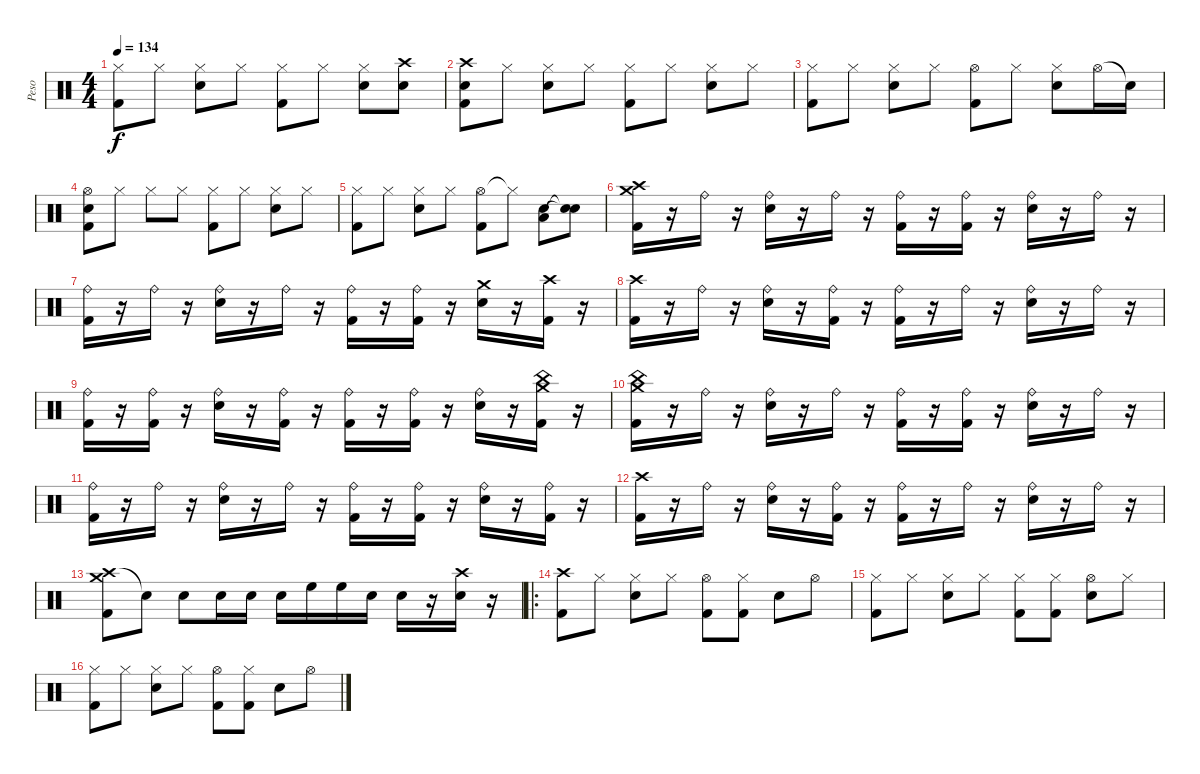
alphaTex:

\track ("Peso" "Peso") {instrument percussion}
\staff {score}
\articulation defaults
\ts (4 4)
\tempo 134
\clef neutral
\ks c
("Hi-Hat (closed)" "Kick (hit) 2").8{dy f} "Hi-Hat (closed)".8 ("Hi-Hat (closed)" "Snare (hit) 2").8 "Hi-Hat (closed)".8 ("Hi-Hat (closed)" "Kick (hit) 2").8 "Hi-Hat (closed)".8 ("Hi-Hat (closed)" "Snare (hit) 2").8 ("Crash high (hit)" "Snare (hit) 2").8 |
("Crash high (hit)" "Snare (hit) 2" "Kick (hit) 2").8 "Hi-Hat (closed)".8 ("Hi-Hat (closed)" "Snare (hit) 2").8 "Hi-Hat (closed)".8 ("Hi-Hat (closed)" "Kick (hit) 2").8 "Hi-Hat (closed)".8 ("Hi-Hat (closed)" "Snare (hit) 2").8 "Hi-Hat (closed)".8 |
("Hi-Hat (closed)" "Kick (hit) 2").8 "Hi-Hat (closed)".8 ("Hi-Hat (closed)" "Snare (hit) 2").8 "Hi-Hat (closed)".8 ("Hi-Hat (open)" "Kick (hit) 2").8 "Hi-Hat (closed)".8 ("Hi-Hat (closed)" "Snare (hit) 2").8 "Hi-Hat (open)".16 "Snare (hit)"{t}.16 |
("Hi-Hat (open)" "Snare (hit) 2" "Kick (hit) 2").8 "Hi-Hat (closed)".8 "Hi-Hat (closed)".8 "Hi-Hat (closed)".8 ("Hi-Hat (closed)" "Kick (hit) 2").8 "Hi-Hat (closed)".8 ("Hi-Hat (closed)" "Snare (hit) 2").8 "Hi-Hat (closed)".8 |
("Hi-Hat (closed)" "Kick (hit) 2").8 "Hi-Hat (closed)".8 ("Hi-Hat (closed)" "Snare (hit) 2").8 "Hi-Hat (closed)".8 ("Hi-Hat (open)" "Kick (hit) 2").8 "Hi-Hat (closed)"{t}.8 ("Low Floor Tom (hit)" "Snare (hit) 2").8 ("Snare (hit)"{t} "Snare (hit)"{t}).8 |
("Crash high (hit)" "Crash medium (hit)" "Kick (hit) 2").16 r.16 "Ride (bell)".16 r.16 ("Ride (bell)" "Snare (hit) 2").16 r.16 "Ride (bell)".16 r.16 ("Ride (bell)" "Kick (hit) 2").16 r.16 ("Ride (bell)" "Kick (hit) 2").16 r.16 ("Ride (bell)" "Snare (hit) 2").16 r.16 "Ride (bell)".16 r.16 |
("Ride (bell)" "Kick (hit) 2").16 r.16 "Ride (bell)".16 r.16 ("Ride (bell)" "Snare (hit) 2").16 r.16 "Ride (bell)".16 r.16 ("Ride (bell)" "Kick (hit) 2").16 r.16 ("Ride (bell)" "Kick (hit) 2").16 r.16 ("Crash medium (hit)" "Snare (hit) 2").16 r.16 ("Crash high (hit)" "Kick (hit) 2").16 r.16 |
("Crash high (hit)" "Kick (hit) 2").16 r.16 "Ride (bell)".16 r.16 ("Ride (bell)" "Snare (hit) 2").16 r.16 ("Ride (bell)" "Kick (hit) 2").16 r.16 ("Ride (bell)" "Kick (hit) 2").16 r.16 "Ride (bell)".16 r.16 ("Ride (bell)" "Snare (hit) 2").16 r.16 "Ride (bell)".16 r.16 |
("Ride (bell)" "Kick (hit) 2").16 r.16 ("Ride (bell)" "Kick (hit) 2").16 r.16 ("Ride (bell)" "Snare (hit) 2").16 r.16 ("Ride (bell)" "Kick (hit) 2").16 r.16 ("Ride (bell)" "Kick (hit) 2").16 r.16 ("Ride (bell)" "Kick (hit) 2").16 r.16 ("Ride (bell)" "Snare (hit) 2").16 r.16 ("Crash medium (hit)" "China (hit)" "Kick (hit) 2").16 r.16 |
("Crash medium (hit)" "China (hit)" "Kick (hit) 2").16 r.16 "Ride (bell)".16 r.16 ("Ride (bell)" "Snare (hit) 2").16 r.16 "Ride (bell)".16 r.16 ("Ride (bell)" "Kick (hit) 2").16 r.16 ("Ride (bell)" "Kick (hit) 2").16 r.16 ("Ride (bell)" "Snare (hit) 2").16 r.16 "Ride (bell)".16 r.16 |
("Ride (bell)" "Kick (hit) 2").16 r.16 "Ride (bell)".16 r.16 ("Ride (bell)" "Snare (hit) 2").16 r.16 "Ride (bell)".16 r.16 ("Ride (bell)" "Kick (hit) 2").16 r.16 ("Ride (bell)" "Kick (hit) 2").16 r.16 ("Ride (bell)" "Snare (hit) 2").16 r.16 ("Ride (bell)" "Kick (hit) 2").16 r.16 |
("Crash high (hit)" "Kick (hit) 2").16 r.16 "Ride (bell)".16 r.16 ("Ride (bell)" "Snare (hit) 2").16 r.16 ("Ride (bell)" "Kick (hit) 2").16 r.16 ("Ride (bell)" "Kick (hit) 2").16 r.16 "Ride (bell)".16 r.16 ("Ride (bell)" "Snare (hit) 2").16 r.16 "Ride (bell)".16 r.16 |
("Crash high (hit)" "Crash medium (hit)" "Kick (hit) 2").8 "Snare (hit)"{t}.8 "Snare (hit) 2".8 "Snare (hit) 2".16 "Snare (hit) 2".16 "Snare (hit) 2".16 "High Floor Tom (hit)".16 "High Floor Tom (hit)".16 "Snare (hit) 2".16 "Snare (hit) 2".16 r.16 ("Crash high (hit)" "Snare (hit) 2").16 r.16 |
\ro
("Crash high (hit)" "Kick (hit) 2").8 "Hi-Hat (closed)".8 ("Hi-Hat (closed)" "Snare (hit) 2").8 "Hi-Hat (closed)".8 ("Hi-Hat (open)" "Kick (hit) 2").8 ("Hi-Hat (closed)" "Kick (hit) 2").8 "Snare (hit) 2".8 "Hi-Hat (open)".8 |
("Hi-Hat (closed)" "Kick (hit) 2").8 "Hi-Hat (closed)".8 ("Hi-Hat (closed)" "Snare (hit) 2").8 "Hi-Hat (closed)".8 ("Hi-Hat (closed)" "Kick (hit) 2").8 ("Hi-Hat (closed)" "Kick (hit) 2").8 ("Hi-Hat (open)" "Snare (hit) 2").8 "Hi-Hat (closed)".8 |
("Hi-Hat (closed)" "Kick (hit) 2").8 "Hi-Hat (closed)".8 ("Hi-Hat (closed)" "Snare (hit) 2").8 "Hi-Hat (closed)".8 ("Hi-Hat (open)" "Kick (hit) 2").8 ("Hi-Hat (closed)" "Kick (hit) 2").8 "Snare (hit) 2".8 "Hi-Hat (open)".8
